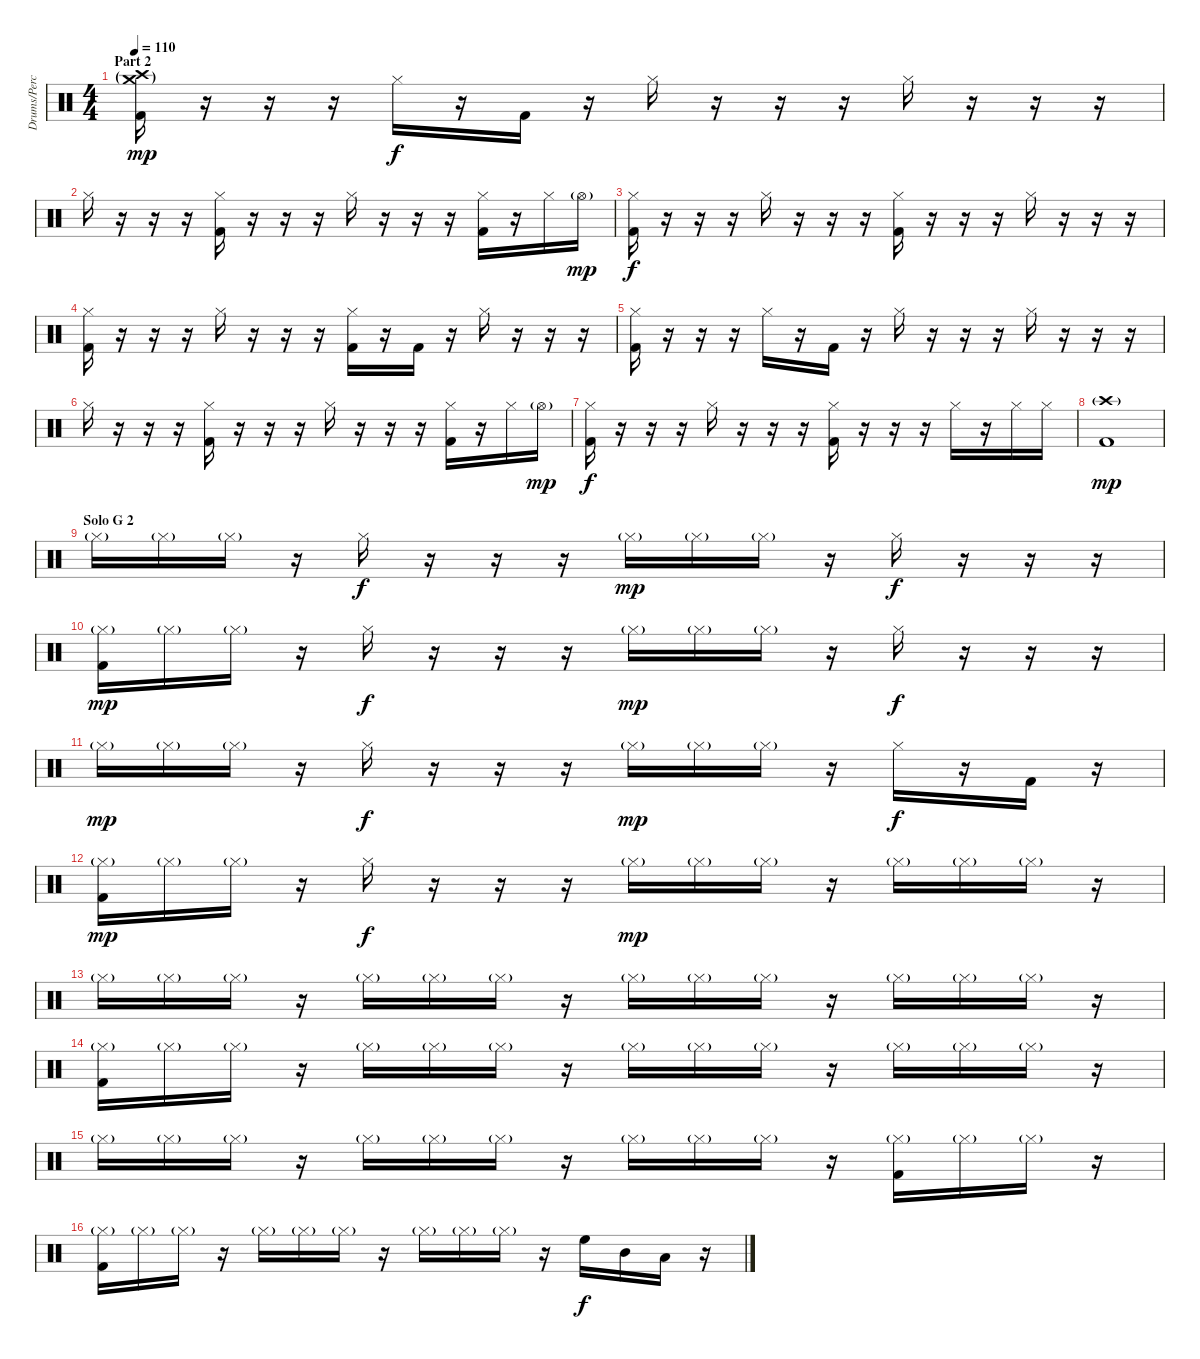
\track ("Drums/Percussions" "Drums/Perc") {instrument percussion}
\staff {score}
\articulation defaults
\ts (4 4)
\section ("" "Part 2")
\tempo 110
\clef neutral
\ks c
("Crash high (hit)"{g} "Crash medium (hit)"{g} "Kick (hit) 2").16{dy mp} r.16 r.16 r.16 "Hi-Hat (closed)".16{dy f} r.16 "Kick (hit) 2".16 r.16 "Hi-Hat (closed)".16 r.16 r.16 r.16 "Hi-Hat (closed)".16 r.16 r.16 r.16 |
"Hi-Hat (closed)".16 r.16 r.16 r.16 ("Hi-Hat (closed)" "Kick (hit) 2").16 r.16 r.16 r.16 "Hi-Hat (closed)".16 r.16 r.16 r.16 ("Hi-Hat (closed)" "Kick (hit) 2").16 r.16 "Hi-Hat (closed)".16 "Hi-Hat (open)"{g}.16{dy mp} |
("Hi-Hat (closed)" "Kick (hit) 2").16{dy f} r.16 r.16 r.16 "Hi-Hat (closed)".16 r.16 r.16 r.16 ("Hi-Hat (closed)" "Kick (hit) 2").16 r.16 r.16 r.16 "Hi-Hat (closed)".16 r.16 r.16 r.16 |
("Hi-Hat (closed)" "Kick (hit) 2").16 r.16 r.16 r.16 "Hi-Hat (closed)".16 r.16 r.16 r.16 ("Hi-Hat (closed)" "Kick (hit) 2").16 r.16 "Kick (hit) 2".16 r.16 "Hi-Hat (closed)".16 r.16 r.16 r.16 |
("Hi-Hat (closed)" "Kick (hit) 2").16 r.16 r.16 r.16 "Hi-Hat (closed)".16 r.16 "Kick (hit) 2".16 r.16 "Hi-Hat (closed)".16 r.16 r.16 r.16 "Hi-Hat (closed)".16 r.16 r.16 r.16 |
"Hi-Hat (closed)".16 r.16 r.16 r.16 ("Hi-Hat (closed)" "Kick (hit) 2").16 r.16 r.16 r.16 "Hi-Hat (closed)".16 r.16 r.16 r.16 ("Hi-Hat (closed)" "Kick (hit) 2").16 r.16 "Hi-Hat (closed)".16 "Hi-Hat (open)"{g}.16{dy mp} |
("Hi-Hat (closed)" "Kick (hit) 2").16{dy f} r.16 r.16 r.16 "Hi-Hat (closed)".16 r.16 r.16 r.16 ("Hi-Hat (closed)" "Kick (hit) 2").16 r.16 r.16 r.16 "Hi-Hat (closed)".16 r.16 "Hi-Hat (closed)".16 "Hi-Hat (closed)".16 |
("Crash high (hit)"{g} "Kick (hit) 2").1{dy mp} |
\section ("" "Solo G 2")
"Hi-Hat (closed)"{g}.16 "Hi-Hat (closed)"{g}.16 "Hi-Hat (closed)"{g}.16 r.16 "Hi-Hat (closed)".16{dy f} r.16 r.16 r.16 "Hi-Hat (closed)"{g}.16{dy mp} "Hi-Hat (closed)"{g}.16 "Hi-Hat (closed)"{g}.16 r.16 "Hi-Hat (closed)".16{dy f} r.16 r.16 r.16 |
("Hi-Hat (closed)"{g} "Kick (hit) 2").16{dy mp} "Hi-Hat (closed)"{g}.16 "Hi-Hat (closed)"{g}.16 r.16 "Hi-Hat (closed)".16{dy f} r.16 r.16 r.16 "Hi-Hat (closed)"{g}.16{dy mp} "Hi-Hat (closed)"{g}.16 "Hi-Hat (closed)"{g}.16 r.16 "Hi-Hat (closed)".16{dy f} r.16 r.16 r.16 |
"Hi-Hat (closed)"{g}.16{dy mp} "Hi-Hat (closed)"{g}.16 "Hi-Hat (closed)"{g}.16 r.16 "Hi-Hat (closed)".16{dy f} r.16 r.16 r.16 "Hi-Hat (closed)"{g}.16{dy mp} "Hi-Hat (closed)"{g}.16 "Hi-Hat (closed)"{g}.16 r.16 "Hi-Hat (closed)".16{dy f} r.16 "Kick (hit) 2".16 r.16 |
("Hi-Hat (closed)"{g} "Kick (hit) 2").16{dy mp} "Hi-Hat (closed)"{g}.16 "Hi-Hat (closed)"{g}.16 r.16 "Hi-Hat (closed)".16{dy f} r.16 r.16 r.16 "Hi-Hat (closed)"{g}.16{dy mp} "Hi-Hat (closed)"{g}.16 "Hi-Hat (closed)"{g}.16 r.16 "Hi-Hat (closed)"{g}.16 "Hi-Hat (closed)"{g}.16 "Hi-Hat (closed)"{g}.16 r.16 |
"Hi-Hat (closed)"{g}.16 "Hi-Hat (closed)"{g}.16 "Hi-Hat (closed)"{g}.16 r.16 "Hi-Hat (closed)"{g}.16 "Hi-Hat (closed)"{g}.16 "Hi-Hat (closed)"{g}.16 r.16 "Hi-Hat (closed)"{g}.16 "Hi-Hat (closed)"{g}.16 "Hi-Hat (closed)"{g}.16 r.16 "Hi-Hat (closed)"{g}.16 "Hi-Hat (closed)"{g}.16 "Hi-Hat (closed)"{g}.16 r.16 |
("Hi-Hat (closed)"{g} "Kick (hit) 2").16 "Hi-Hat (closed)"{g}.16 "Hi-Hat (closed)"{g}.16 r.16 "Hi-Hat (closed)"{g}.16 "Hi-Hat (closed)"{g}.16 "Hi-Hat (closed)"{g}.16 r.16 "Hi-Hat (closed)"{g}.16 "Hi-Hat (closed)"{g}.16 "Hi-Hat (closed)"{g}.16 r.16 "Hi-Hat (closed)"{g}.16 "Hi-Hat (closed)"{g}.16 "Hi-Hat (closed)"{g}.16 r.16 |
"Hi-Hat (closed)"{g}.16 "Hi-Hat (closed)"{g}.16 "Hi-Hat (closed)"{g}.16 r.16 "Hi-Hat (closed)"{g}.16 "Hi-Hat (closed)"{g}.16 "Hi-Hat (closed)"{g}.16 r.16 "Hi-Hat (closed)"{g}.16 "Hi-Hat (closed)"{g}.16 "Hi-Hat (closed)"{g}.16 r.16 ("Hi-Hat (closed)"{g} "Kick (hit) 2").16 "Hi-Hat (closed)"{g}.16 "Hi-Hat (closed)"{g}.16 r.16 |
("Hi-Hat (closed)"{g} "Kick (hit) 2").16 "Hi-Hat (closed)"{g}.16 "Hi-Hat (closed)"{g}.16 r.16 "Hi-Hat (closed)"{g}.16 "Hi-Hat (closed)"{g}.16 "Hi-Hat (closed)"{g}.16 r.16 "Hi-Hat (closed)"{g}.16 "Hi-Hat (closed)"{g}.16 "Hi-Hat (closed)"{g}.16 r.16 "High Floor Tom (hit)".16{dy f} "Mid Tom (hit)".16 "Low Tom (hit)".16 r.16
